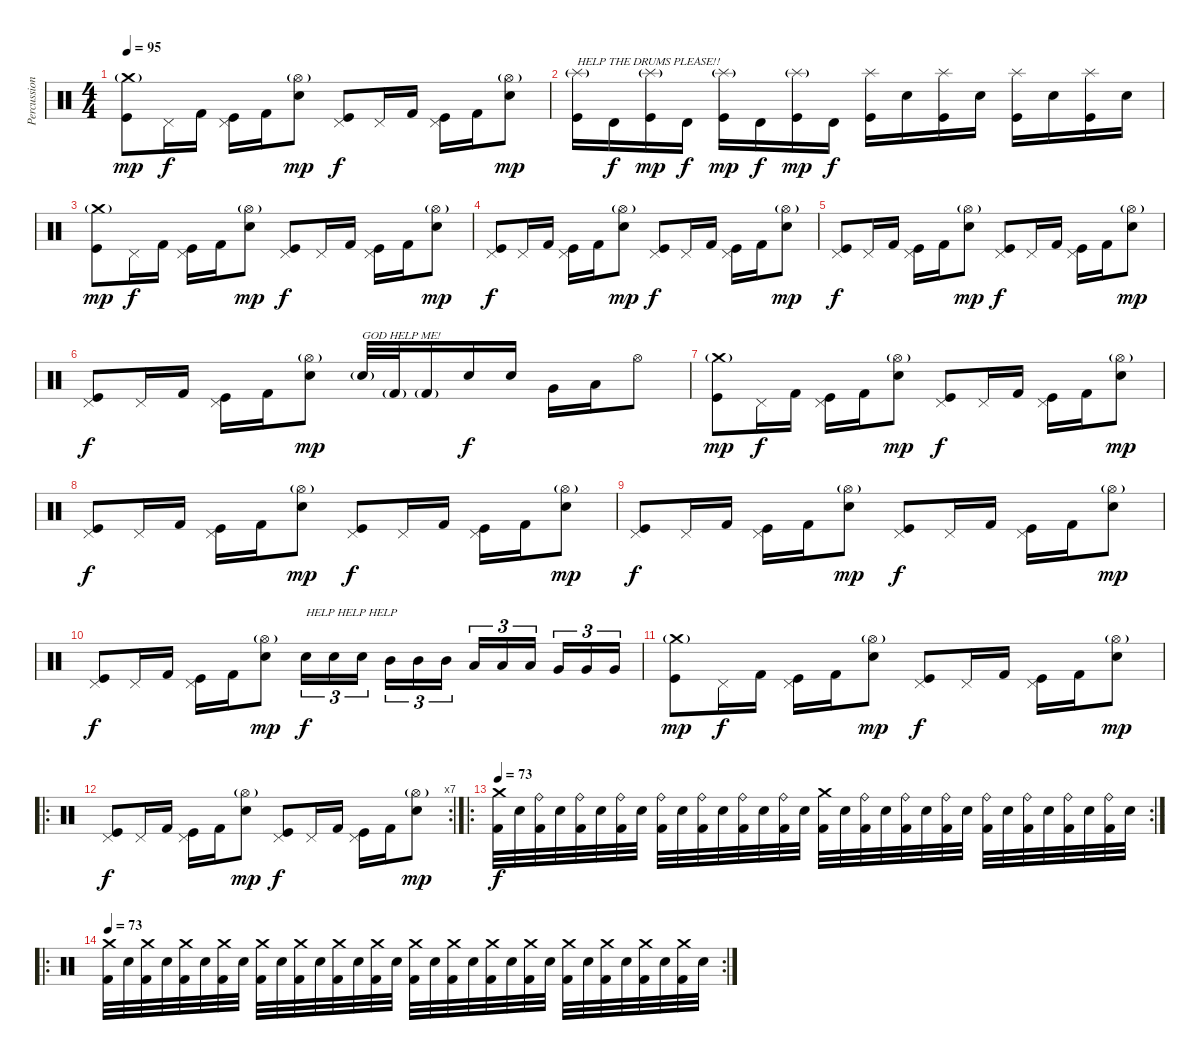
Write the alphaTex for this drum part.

\track ("Percussion" "Percussion") {instrument percussion}
\staff {score}
\articulation defaults
\ts (4 4)
\tempo 95
\clef neutral
\ks c
("Crash medium (hit)"{g} "Kick (hit)").8{dy mp} "Pedal Hi-Hat (hit)".16{dy f} "Kick (hit) 2".16 ("Pedal Hi-Hat (hit)" "Kick (hit)").16 "Kick (hit) 2".16 ("Hi-Hat (open)"{g} "Electric Snare (hit)").8{dy mp} ("Pedal Hi-Hat (hit)" "Kick (hit)").8{dy f} "Pedal Hi-Hat (hit)".16 "Kick (hit) 2".16 ("Pedal Hi-Hat (hit)" "Kick (hit)").16 "Kick (hit) 2".16 ("Hi-Hat (open)"{g} "Electric Snare (hit)").8{dy mp} |
("Splash (hit)"{g} "Kick (hit)").16{txt "HELP THE DRUMS PLEASE!!"} "Timbale high (hit)".16{dy f} ("Splash (hit)"{g} "Kick (hit)").16{dy mp} "Timbale high (hit)".16{dy f} ("Splash (hit)"{g} "Kick (hit)").16{dy mp} "Timbale high (hit)".16{dy f} ("Splash (hit)"{g} "Kick (hit)").16{dy mp} "Timbale high (hit)".16{dy f} ("Splash (hit)" "Kick (hit)").16 "Electric Snare (hit)".16 ("Splash (hit)" "Kick (hit)").16 "Electric Snare (hit)".16 ("Splash (hit)" "Kick (hit)").16 "Electric Snare (hit)".16 ("Splash (hit)" "Kick (hit)").16 "Electric Snare (hit)".16 |
("Crash medium (hit)"{g} "Kick (hit)").8{dy mp} "Pedal Hi-Hat (hit)".16{dy f} "Kick (hit) 2".16 ("Pedal Hi-Hat (hit)" "Kick (hit)").16 "Kick (hit) 2".16 ("Hi-Hat (open)"{g} "Electric Snare (hit)").8{dy mp} ("Pedal Hi-Hat (hit)" "Kick (hit)").8{dy f} "Pedal Hi-Hat (hit)".16 "Kick (hit) 2".16 ("Pedal Hi-Hat (hit)" "Kick (hit)").16 "Kick (hit) 2".16 ("Hi-Hat (open)"{g} "Electric Snare (hit)").8{dy mp} |
("Pedal Hi-Hat (hit)" "Kick (hit)").8{dy f} "Pedal Hi-Hat (hit)".16 "Kick (hit) 2".16 ("Pedal Hi-Hat (hit)" "Kick (hit)").16 "Kick (hit) 2".16 ("Hi-Hat (open)"{g} "Electric Snare (hit)").8{dy mp} ("Pedal Hi-Hat (hit)" "Kick (hit)").8{dy f} "Pedal Hi-Hat (hit)".16 "Kick (hit) 2".16 ("Pedal Hi-Hat (hit)" "Kick (hit)").16 "Kick (hit) 2".16 ("Hi-Hat (open)"{g} "Electric Snare (hit)").8{dy mp} |
("Pedal Hi-Hat (hit)" "Kick (hit)").8{dy f} "Pedal Hi-Hat (hit)".16 "Kick (hit) 2".16 ("Pedal Hi-Hat (hit)" "Kick (hit)").16 "Kick (hit) 2".16 ("Hi-Hat (open)"{g} "Electric Snare (hit)").8{dy mp} ("Pedal Hi-Hat (hit)" "Kick (hit)").8{dy f} "Pedal Hi-Hat (hit)".16 "Kick (hit) 2".16 ("Pedal Hi-Hat (hit)" "Kick (hit)").16 "Kick (hit) 2".16 ("Hi-Hat (open)"{g} "Electric Snare (hit)").8{dy mp} |
("Pedal Hi-Hat (hit)" "Kick (hit)").8{dy f} "Pedal Hi-Hat (hit)".16 "Kick (hit) 2".16 ("Pedal Hi-Hat (hit)" "Kick (hit)").16 "Kick (hit) 2".16 ("Hi-Hat (open)"{g} "Electric Snare (hit)").8{dy mp} "Electric Snare (hit)"{g}.32{txt "GOD HELP ME!"} "Kick (hit) 2"{g}.32 "Kick (hit) 2"{g}.16 "Electric Snare (hit)".16{dy f} "Electric Snare (hit)".16 "Very Low Tom (hit)".16 "Low Floor Tom (hit)".16 "Hi-Hat (open)".8 |
("Crash medium (hit)"{g} "Kick (hit)").8{dy mp} "Pedal Hi-Hat (hit)".16{dy f} "Kick (hit) 2".16 ("Pedal Hi-Hat (hit)" "Kick (hit)").16 "Kick (hit) 2".16 ("Hi-Hat (open)"{g} "Electric Snare (hit)").8{dy mp} ("Pedal Hi-Hat (hit)" "Kick (hit)").8{dy f} "Pedal Hi-Hat (hit)".16 "Kick (hit) 2".16 ("Pedal Hi-Hat (hit)" "Kick (hit)").16 "Kick (hit) 2".16 ("Hi-Hat (open)"{g} "Electric Snare (hit)").8{dy mp} |
("Pedal Hi-Hat (hit)" "Kick (hit)").8{dy f} "Pedal Hi-Hat (hit)".16 "Kick (hit) 2".16 ("Pedal Hi-Hat (hit)" "Kick (hit)").16 "Kick (hit) 2".16 ("Hi-Hat (open)"{g} "Electric Snare (hit)").8{dy mp} ("Pedal Hi-Hat (hit)" "Kick (hit)").8{dy f} "Pedal Hi-Hat (hit)".16 "Kick (hit) 2".16 ("Pedal Hi-Hat (hit)" "Kick (hit)").16 "Kick (hit) 2".16 ("Hi-Hat (open)"{g} "Electric Snare (hit)").8{dy mp} |
("Pedal Hi-Hat (hit)" "Kick (hit)").8{dy f} "Pedal Hi-Hat (hit)".16 "Kick (hit) 2".16 ("Pedal Hi-Hat (hit)" "Kick (hit)").16 "Kick (hit) 2".16 ("Hi-Hat (open)"{g} "Electric Snare (hit)").8{dy mp} ("Pedal Hi-Hat (hit)" "Kick (hit)").8{dy f} "Pedal Hi-Hat (hit)".16 "Kick (hit) 2".16 ("Pedal Hi-Hat (hit)" "Kick (hit)").16 "Kick (hit) 2".16 ("Hi-Hat (open)"{g} "Electric Snare (hit)").8{dy mp} |
("Pedal Hi-Hat (hit)" "Kick (hit)").8{dy f} "Pedal Hi-Hat (hit)".16 "Kick (hit) 2".16 ("Pedal Hi-Hat (hit)" "Kick (hit)").16 "Kick (hit) 2".16 ("Hi-Hat (open)"{g} "Electric Snare (hit)").8{dy mp} "Electric Snare (hit)".16{tu (3 2) txt "HELP HELP HELP" dy f} "Electric Snare (hit)".16{tu (3 2)} "Electric Snare (hit)".16{tu (3 2)} "Mid Tom (hit)".16{tu (3 2)} "Mid Tom (hit)".16{tu (3 2)} "Mid Tom (hit)".16{tu (3 2)} "Low Tom (hit)".16{tu (3 2)} "Low Tom (hit)".16{tu (3 2)} "Low Tom (hit)".16{tu (3 2)} "Very Low Tom (hit)".16{tu (3 2)} "Very Low Tom (hit)".16{tu (3 2)} "Very Low Tom (hit)".16{tu (3 2)} |
("Crash medium (hit)"{g} "Kick (hit)").8{dy mp} "Pedal Hi-Hat (hit)".16{dy f} "Kick (hit) 2".16 ("Pedal Hi-Hat (hit)" "Kick (hit)").16 "Kick (hit) 2".16 ("Hi-Hat (open)"{g} "Electric Snare (hit)").8{dy mp} ("Pedal Hi-Hat (hit)" "Kick (hit)").8{dy f} "Pedal Hi-Hat (hit)".16 "Kick (hit) 2".16 ("Pedal Hi-Hat (hit)" "Kick (hit)").16 "Kick (hit) 2".16 ("Hi-Hat (open)"{g} "Electric Snare (hit)").8{dy mp} |
\ro
\rc 7
("Pedal Hi-Hat (hit)" "Kick (hit)").8{dy f} "Pedal Hi-Hat (hit)".16 "Kick (hit) 2".16 ("Pedal Hi-Hat (hit)" "Kick (hit)").16 "Kick (hit) 2".16 ("Hi-Hat (open)"{g} "Electric Snare (hit)").8{dy mp} ("Pedal Hi-Hat (hit)" "Kick (hit)").8{dy f} "Pedal Hi-Hat (hit)".16 "Kick (hit) 2".16 ("Pedal Hi-Hat (hit)" "Kick (hit)").16 "Kick (hit) 2".16 ("Hi-Hat (open)"{g} "Electric Snare (hit)").8{dy mp} |
\ro
\rc 2
\tempo 73
("Crash medium (hit)" "Kick (hit) 2").32{dy f} "Electric Snare (hit)".32 ("Ride (bell)" "Kick (hit) 2").32 "Electric Snare (hit)".32 ("Ride (bell)" "Kick (hit) 2").32 "Electric Snare (hit)".32 ("Ride (bell)" "Kick (hit) 2").32 "Electric Snare (hit)".32 ("Ride (bell)" "Kick (hit) 2").32 "Electric Snare (hit)".32 ("Ride (bell)" "Kick (hit) 2").32 "Electric Snare (hit)".32 ("Ride (bell)" "Kick (hit) 2").32 "Electric Snare (hit)".32 ("Ride (bell)" "Kick (hit) 2").32 "Electric Snare (hit)".32 ("Crash medium (hit)" "Kick (hit) 2").32 "Electric Snare (hit)".32 ("Ride (bell)" "Kick (hit) 2").32 "Electric Snare (hit)".32 ("Ride (bell)" "Kick (hit) 2").32 "Electric Snare (hit)".32 ("Ride (bell)" "Kick (hit) 2").32 "Electric Snare (hit)".32 ("Ride (bell)" "Kick (hit) 2").32 "Electric Snare (hit)".32 ("Ride (bell)" "Kick (hit) 2").32 "Electric Snare (hit)".32 ("Ride (bell)" "Kick (hit) 2").32 "Electric Snare (hit)".32 ("Ride (bell)" "Kick (hit) 2").32 "Electric Snare (hit)".32 |
\ro
\rc 2
\tempo 73
("Crash medium (hit)" "Kick (hit) 2").32 "Electric Snare (hit)".32 ("Crash medium (hit)" "Kick (hit) 2").32 "Electric Snare (hit)".32 ("Crash medium (hit)" "Kick (hit) 2").32 "Electric Snare (hit)".32 ("Crash medium (hit)" "Kick (hit) 2").32 "Electric Snare (hit)".32 ("Crash medium (hit)" "Kick (hit) 2").32 "Electric Snare (hit)".32 ("Crash medium (hit)" "Kick (hit) 2").32 "Electric Snare (hit)".32 ("Crash medium (hit)" "Kick (hit) 2").32 "Electric Snare (hit)".32 ("Crash medium (hit)" "Kick (hit) 2").32 "Electric Snare (hit)".32 ("Crash medium (hit)" "Kick (hit) 2").32 "Electric Snare (hit)".32 ("Crash medium (hit)" "Kick (hit) 2").32 "Electric Snare (hit)".32 ("Crash medium (hit)" "Kick (hit) 2").32 "Electric Snare (hit)".32 ("Crash medium (hit)" "Kick (hit) 2").32 "Electric Snare (hit)".32 ("Crash medium (hit)" "Kick (hit) 2").32 "Electric Snare (hit)".32 ("Crash medium (hit)" "Kick (hit) 2").32 "Electric Snare (hit)".32 ("Crash medium (hit)" "Kick (hit) 2").32 "Electric Snare (hit)".32 ("Crash medium (hit)" "Kick (hit) 2").32 "Electric Snare (hit)".32
